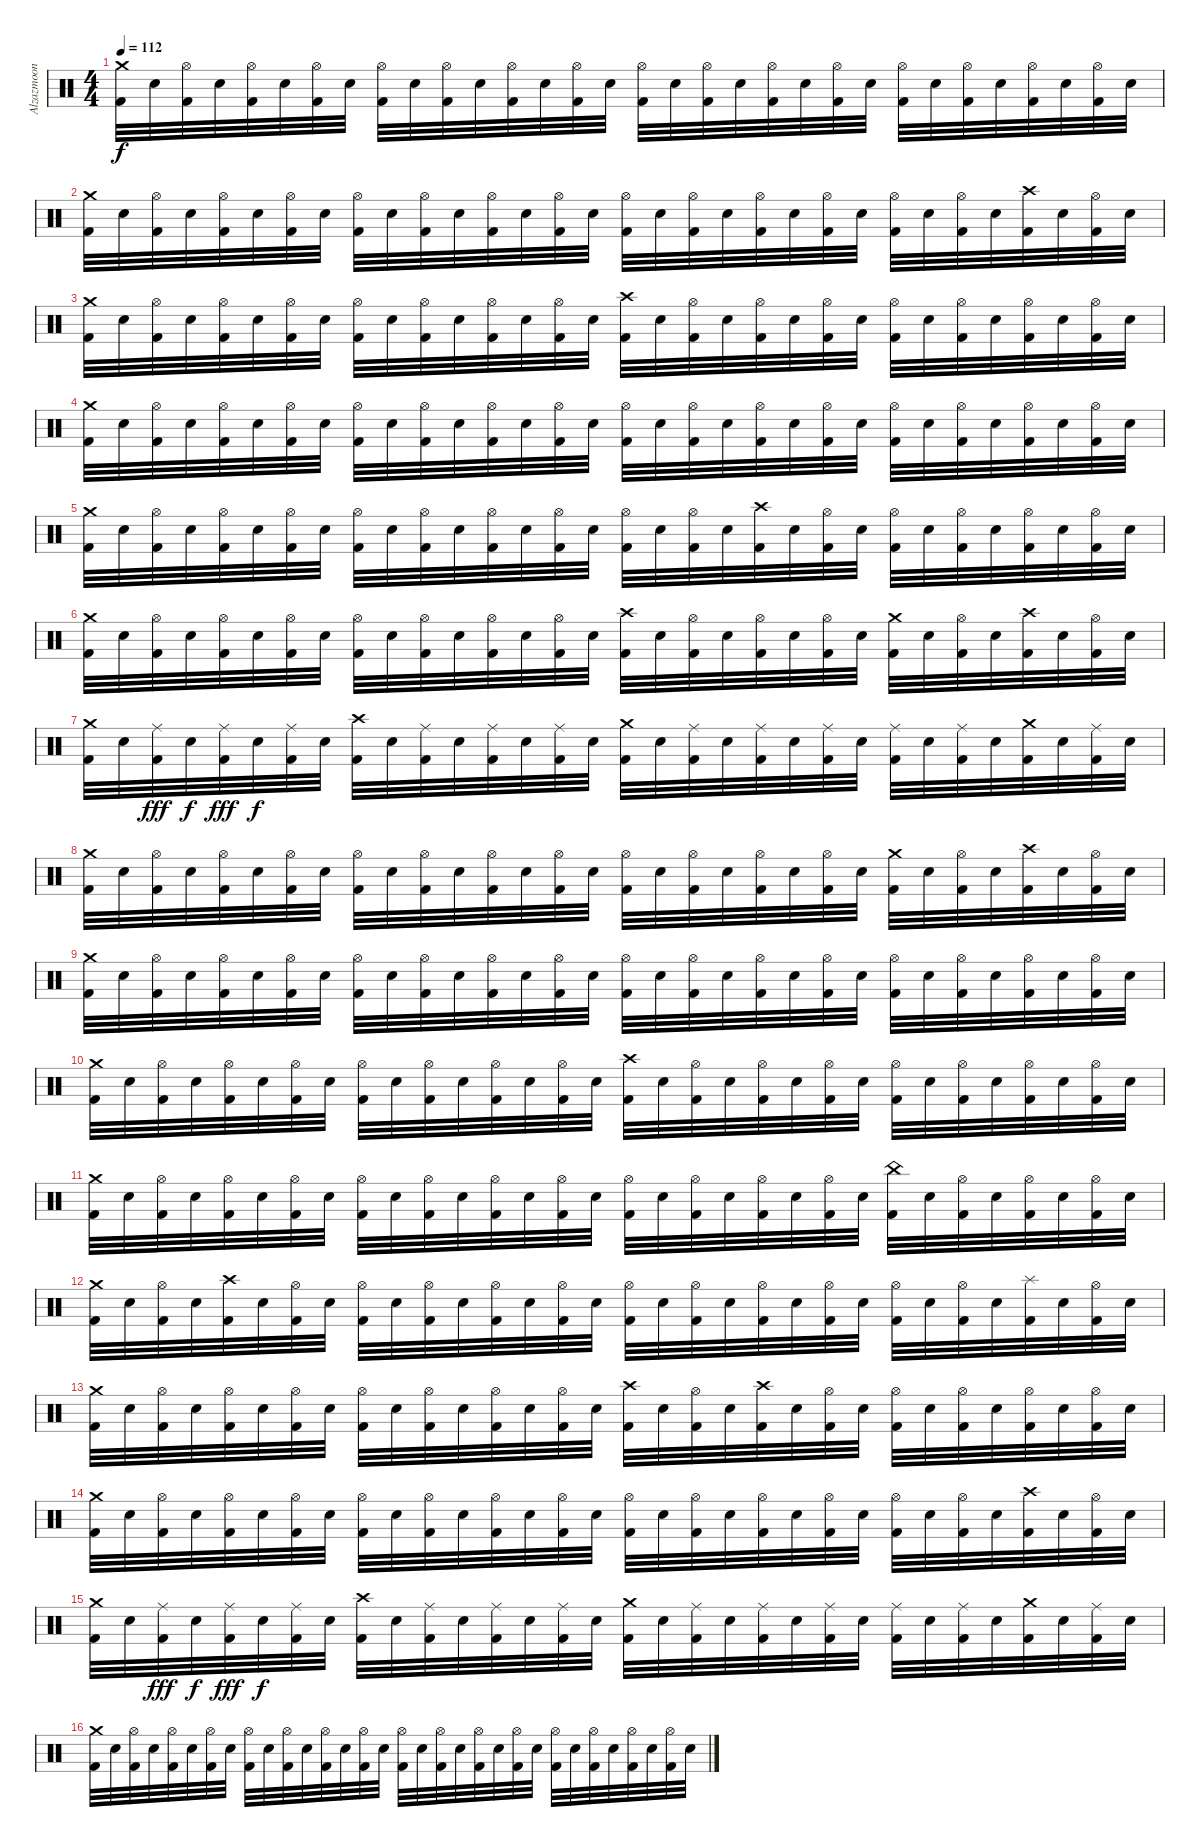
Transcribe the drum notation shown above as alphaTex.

\track ("Alzazmoon" "Alzazmoon") {instrument percussion}
\staff {score}
\articulation defaults
\ts (4 4)
\tempo 112
\clef neutral
\ks c
("Crash medium (hit)" "Kick (hit) 2").32{dy f} "Snare (hit) 2".32 ("Hi-Hat (open)" "Kick (hit) 2").32 "Snare (hit) 2".32 ("Hi-Hat (open)" "Kick (hit) 2").32 "Snare (hit) 2".32 ("Hi-Hat (open)" "Kick (hit) 2").32 "Snare (hit) 2".32 ("Hi-Hat (open)" "Kick (hit) 2").32 "Snare (hit) 2".32 ("Hi-Hat (open)" "Kick (hit) 2").32 "Snare (hit) 2".32 ("Hi-Hat (open)" "Kick (hit) 2").32 "Snare (hit) 2".32 ("Hi-Hat (open)" "Kick (hit) 2").32 "Snare (hit) 2".32 ("Hi-Hat (open)" "Kick (hit) 2").32 "Snare (hit) 2".32 ("Hi-Hat (open)" "Kick (hit) 2").32 "Snare (hit) 2".32 ("Hi-Hat (open)" "Kick (hit) 2").32 "Snare (hit) 2".32 ("Hi-Hat (open)" "Kick (hit) 2").32 "Snare (hit) 2".32 ("Hi-Hat (open)" "Kick (hit) 2").32 "Snare (hit) 2".32 ("Hi-Hat (open)" "Kick (hit) 2").32 "Snare (hit) 2".32 ("Hi-Hat (open)" "Kick (hit) 2").32 "Snare (hit) 2".32 ("Hi-Hat (open)" "Kick (hit) 2").32 "Snare (hit) 2".32 |
("Crash medium (hit)" "Kick (hit) 2").32 "Snare (hit) 2".32 ("Hi-Hat (open)" "Kick (hit) 2").32 "Snare (hit) 2".32 ("Hi-Hat (open)" "Kick (hit) 2").32 "Snare (hit) 2".32 ("Hi-Hat (open)" "Kick (hit) 2").32 "Snare (hit) 2".32 ("Hi-Hat (open)" "Kick (hit) 2").32 "Snare (hit) 2".32 ("Hi-Hat (open)" "Kick (hit) 2").32 "Snare (hit) 2".32 ("Hi-Hat (open)" "Kick (hit) 2").32 "Snare (hit) 2".32 ("Hi-Hat (open)" "Kick (hit) 2").32 "Snare (hit) 2".32 ("Hi-Hat (open)" "Kick (hit) 2").32 "Snare (hit) 2".32 ("Hi-Hat (open)" "Kick (hit) 2").32 "Snare (hit) 2".32 ("Hi-Hat (open)" "Kick (hit) 2").32 "Snare (hit) 2".32 ("Hi-Hat (open)" "Kick (hit) 2").32 "Snare (hit) 2".32 ("Hi-Hat (open)" "Kick (hit) 2").32 "Snare (hit) 2".32 ("Hi-Hat (open)" "Kick (hit) 2").32 "Snare (hit) 2".32 ("Crash high (hit)" "Kick (hit) 2").32 "Snare (hit) 2".32 ("Hi-Hat (open)" "Kick (hit) 2").32 "Snare (hit) 2".32 |
("Crash medium (hit)" "Kick (hit) 2").32 "Snare (hit) 2".32 ("Hi-Hat (open)" "Kick (hit) 2").32 "Snare (hit) 2".32 ("Hi-Hat (open)" "Kick (hit) 2").32 "Snare (hit) 2".32 ("Hi-Hat (open)" "Kick (hit) 2").32 "Snare (hit) 2".32 ("Hi-Hat (open)" "Kick (hit) 2").32 "Snare (hit) 2".32 ("Hi-Hat (open)" "Kick (hit) 2").32 "Snare (hit) 2".32 ("Hi-Hat (open)" "Kick (hit) 2").32 "Snare (hit) 2".32 ("Hi-Hat (open)" "Kick (hit) 2").32 "Snare (hit) 2".32 ("Crash high (hit)" "Kick (hit) 2").32 "Snare (hit) 2".32 ("Hi-Hat (open)" "Kick (hit) 2").32 "Snare (hit) 2".32 ("Hi-Hat (open)" "Kick (hit) 2").32 "Snare (hit) 2".32 ("Hi-Hat (open)" "Kick (hit) 2").32 "Snare (hit) 2".32 ("Hi-Hat (open)" "Kick (hit) 2").32 "Snare (hit) 2".32 ("Hi-Hat (open)" "Kick (hit) 2").32 "Snare (hit) 2".32 ("Hi-Hat (open)" "Kick (hit) 2").32 "Snare (hit) 2".32 ("Hi-Hat (open)" "Kick (hit) 2").32 "Snare (hit) 2".32 |
("Crash medium (hit)" "Kick (hit) 2").32 "Snare (hit) 2".32 ("Hi-Hat (open)" "Kick (hit) 2").32 "Snare (hit) 2".32 ("Hi-Hat (open)" "Kick (hit) 2").32 "Snare (hit) 2".32 ("Hi-Hat (open)" "Kick (hit) 2").32 "Snare (hit) 2".32 ("Hi-Hat (open)" "Kick (hit) 2").32 "Snare (hit) 2".32 ("Hi-Hat (open)" "Kick (hit) 2").32 "Snare (hit) 2".32 ("Hi-Hat (open)" "Kick (hit) 2").32 "Snare (hit) 2".32 ("Hi-Hat (open)" "Kick (hit) 2").32 "Snare (hit) 2".32 ("Hi-Hat (open)" "Kick (hit) 2").32 "Snare (hit) 2".32 ("Hi-Hat (open)" "Kick (hit) 2").32 "Snare (hit) 2".32 ("Hi-Hat (open)" "Kick (hit) 2").32 "Snare (hit) 2".32 ("Hi-Hat (open)" "Kick (hit) 2").32 "Snare (hit) 2".32 ("Hi-Hat (open)" "Kick (hit) 2").32 "Snare (hit) 2".32 ("Hi-Hat (open)" "Kick (hit) 2").32 "Snare (hit) 2".32 ("Hi-Hat (open)" "Kick (hit) 2").32 "Snare (hit) 2".32 ("Hi-Hat (open)" "Kick (hit) 2").32 "Snare (hit) 2".32 |
("Crash medium (hit)" "Kick (hit) 2").32 "Snare (hit) 2".32 ("Hi-Hat (open)" "Kick (hit) 2").32 "Snare (hit) 2".32 ("Hi-Hat (open)" "Kick (hit) 2").32 "Snare (hit) 2".32 ("Hi-Hat (open)" "Kick (hit) 2").32 "Snare (hit) 2".32 ("Hi-Hat (open)" "Kick (hit) 2").32 "Snare (hit) 2".32 ("Hi-Hat (open)" "Kick (hit) 2").32 "Snare (hit) 2".32 ("Hi-Hat (open)" "Kick (hit) 2").32 "Snare (hit) 2".32 ("Hi-Hat (open)" "Kick (hit) 2").32 "Snare (hit) 2".32 ("Hi-Hat (open)" "Kick (hit) 2").32 "Snare (hit) 2".32 ("Hi-Hat (open)" "Kick (hit) 2").32 "Snare (hit) 2".32 ("Crash high (hit)" "Kick (hit) 2").32 "Snare (hit) 2".32 ("Hi-Hat (open)" "Kick (hit) 2").32 "Snare (hit) 2".32 ("Hi-Hat (open)" "Kick (hit) 2").32 "Snare (hit) 2".32 ("Hi-Hat (open)" "Kick (hit) 2").32 "Snare (hit) 2".32 ("Hi-Hat (open)" "Kick (hit) 2").32 "Snare (hit) 2".32 ("Hi-Hat (open)" "Kick (hit) 2").32 "Snare (hit) 2".32 |
("Crash medium (hit)" "Kick (hit) 2").32 "Snare (hit) 2".32 ("Hi-Hat (open)" "Kick (hit) 2").32 "Snare (hit) 2".32 ("Hi-Hat (open)" "Kick (hit) 2").32 "Snare (hit) 2".32 ("Hi-Hat (open)" "Kick (hit) 2").32 "Snare (hit) 2".32 ("Hi-Hat (open)" "Kick (hit) 2").32 "Snare (hit) 2".32 ("Hi-Hat (open)" "Kick (hit) 2").32 "Snare (hit) 2".32 ("Hi-Hat (open)" "Kick (hit) 2").32 "Snare (hit) 2".32 ("Hi-Hat (open)" "Kick (hit) 2").32 "Snare (hit) 2".32 ("Crash high (hit)" "Kick (hit) 2").32 "Snare (hit) 2".32 ("Hi-Hat (open)" "Kick (hit) 2").32 "Snare (hit) 2".32 ("Hi-Hat (open)" "Kick (hit) 2").32 "Snare (hit) 2".32 ("Hi-Hat (open)" "Kick (hit) 2").32 "Snare (hit) 2".32 ("Crash medium (hit)" "Kick (hit) 2").32 "Snare (hit) 2".32 ("Hi-Hat (open)" "Kick (hit) 2").32 "Snare (hit) 2".32 ("Crash high (hit)" "Kick (hit) 2").32 "Snare (hit) 2".32 ("Hi-Hat (open)" "Kick (hit) 2").32 "Snare (hit) 2".32 |
("Crash medium (hit)" "Kick (hit) 2").32 "Snare (hit) 2".32 ("Ride (middle)" "Kick (hit) 2").32{dy fff} "Snare (hit) 2".32{dy f} ("Ride (middle)" "Kick (hit) 2").32{dy fff} "Snare (hit) 2".32{dy f} ("Ride (middle)" "Kick (hit) 2").32 "Snare (hit) 2".32 ("Crash high (hit)" "Kick (hit) 2").32 "Snare (hit) 2".32 ("Ride (middle)" "Kick (hit) 2").32 "Snare (hit) 2".32 ("Ride (middle)" "Kick (hit) 2").32 "Snare (hit) 2".32 ("Ride (middle)" "Kick (hit) 2").32 "Snare (hit) 2".32 ("Crash medium (hit)" "Kick (hit) 2").32 "Snare (hit) 2".32 ("Ride (middle)" "Kick (hit) 2").32 "Snare (hit) 2".32 ("Ride (middle)" "Kick (hit) 2").32 "Snare (hit) 2".32 ("Ride (middle)" "Kick (hit) 2").32 "Snare (hit) 2".32 ("Ride (middle)" "Kick (hit) 2").32 "Snare (hit) 2".32 ("Ride (middle)" "Kick (hit) 2").32 "Snare (hit) 2".32 ("Crash medium (hit)" "Kick (hit) 2").32 "Snare (hit) 2".32 ("Ride (middle)" "Kick (hit) 2").32 "Snare (hit) 2".32 |
("Crash medium (hit)" "Kick (hit) 2").32 "Snare (hit) 2".32 ("Hi-Hat (open)" "Kick (hit) 2").32 "Snare (hit) 2".32 ("Hi-Hat (open)" "Kick (hit) 2").32 "Snare (hit) 2".32 ("Hi-Hat (open)" "Kick (hit) 2").32 "Snare (hit) 2".32 ("Hi-Hat (open)" "Kick (hit) 2").32 "Snare (hit) 2".32 ("Hi-Hat (open)" "Kick (hit) 2").32 "Snare (hit) 2".32 ("Hi-Hat (open)" "Kick (hit) 2").32 "Snare (hit) 2".32 ("Hi-Hat (open)" "Kick (hit) 2").32 "Snare (hit) 2".32 ("Hi-Hat (open)" "Kick (hit) 2").32 "Snare (hit) 2".32 ("Hi-Hat (open)" "Kick (hit) 2").32 "Snare (hit) 2".32 ("Hi-Hat (open)" "Kick (hit) 2").32 "Snare (hit) 2".32 ("Hi-Hat (open)" "Kick (hit) 2").32 "Snare (hit) 2".32 ("Crash medium (hit)" "Kick (hit) 2").32 "Snare (hit) 2".32 ("Hi-Hat (open)" "Kick (hit) 2").32 "Snare (hit) 2".32 ("Crash high (hit)" "Kick (hit) 2").32 "Snare (hit) 2".32 ("Hi-Hat (open)" "Kick (hit) 2").32 "Snare (hit) 2".32 |
("Crash medium (hit)" "Kick (hit) 2").32 "Snare (hit) 2".32 ("Hi-Hat (open)" "Kick (hit) 2").32 "Snare (hit) 2".32 ("Hi-Hat (open)" "Kick (hit) 2").32 "Snare (hit) 2".32 ("Hi-Hat (open)" "Kick (hit) 2").32 "Snare (hit) 2".32 ("Hi-Hat (open)" "Kick (hit) 2").32 "Snare (hit) 2".32 ("Hi-Hat (open)" "Kick (hit) 2").32 "Snare (hit) 2".32 ("Hi-Hat (open)" "Kick (hit) 2").32 "Snare (hit) 2".32 ("Hi-Hat (open)" "Kick (hit) 2").32 "Snare (hit) 2".32 ("Hi-Hat (open)" "Kick (hit) 2").32 "Snare (hit) 2".32 ("Hi-Hat (open)" "Kick (hit) 2").32 "Snare (hit) 2".32 ("Hi-Hat (open)" "Kick (hit) 2").32 "Snare (hit) 2".32 ("Hi-Hat (open)" "Kick (hit) 2").32 "Snare (hit) 2".32 ("Hi-Hat (open)" "Kick (hit) 2").32 "Snare (hit) 2".32 ("Hi-Hat (open)" "Kick (hit) 2").32 "Snare (hit) 2".32 ("Hi-Hat (open)" "Kick (hit) 2").32 "Snare (hit) 2".32 ("Hi-Hat (open)" "Kick (hit) 2").32 "Snare (hit) 2".32 |
("Crash medium (hit)" "Kick (hit) 2").32 "Snare (hit) 2".32 ("Hi-Hat (open)" "Kick (hit) 2").32 "Snare (hit) 2".32 ("Hi-Hat (open)" "Kick (hit) 2").32 "Snare (hit) 2".32 ("Hi-Hat (open)" "Kick (hit) 2").32 "Snare (hit) 2".32 ("Hi-Hat (open)" "Kick (hit) 2").32 "Snare (hit) 2".32 ("Hi-Hat (open)" "Kick (hit) 2").32 "Snare (hit) 2".32 ("Hi-Hat (open)" "Kick (hit) 2").32 "Snare (hit) 2".32 ("Hi-Hat (open)" "Kick (hit) 2").32 "Snare (hit) 2".32 ("Crash high (hit)" "Kick (hit) 2").32 "Snare (hit) 2".32 ("Hi-Hat (open)" "Kick (hit) 2").32 "Snare (hit) 2".32 ("Hi-Hat (open)" "Kick (hit) 2").32 "Snare (hit) 2".32 ("Hi-Hat (open)" "Kick (hit) 2").32 "Snare (hit) 2".32 ("Hi-Hat (open)" "Kick (hit) 2").32 "Snare (hit) 2".32 ("Hi-Hat (open)" "Kick (hit) 2").32 "Snare (hit) 2".32 ("Hi-Hat (open)" "Kick (hit) 2").32 "Snare (hit) 2".32 ("Hi-Hat (open)" "Kick (hit) 2").32 "Snare (hit) 2".32 |
("Crash medium (hit)" "Kick (hit) 2").32 "Snare (hit) 2".32 ("Hi-Hat (open)" "Kick (hit) 2").32 "Snare (hit) 2".32 ("Hi-Hat (open)" "Kick (hit) 2").32 "Snare (hit) 2".32 ("Hi-Hat (open)" "Kick (hit) 2").32 "Snare (hit) 2".32 ("Hi-Hat (open)" "Kick (hit) 2").32 "Snare (hit) 2".32 ("Hi-Hat (open)" "Kick (hit) 2").32 "Snare (hit) 2".32 ("Hi-Hat (open)" "Kick (hit) 2").32 "Snare (hit) 2".32 ("Hi-Hat (open)" "Kick (hit) 2").32 "Snare (hit) 2".32 ("Hi-Hat (open)" "Kick (hit) 2").32 "Snare (hit) 2".32 ("Hi-Hat (open)" "Kick (hit) 2").32 "Snare (hit) 2".32 ("Hi-Hat (open)" "Kick (hit) 2").32 "Snare (hit) 2".32 ("Hi-Hat (open)" "Kick (hit) 2").32 "Snare (hit) 2".32 ("China (hit)" "Kick (hit) 2").32 "Snare (hit) 2".32 ("Hi-Hat (open)" "Kick (hit) 2").32 "Snare (hit) 2".32 ("Hi-Hat (open)" "Kick (hit) 2").32 "Snare (hit) 2".32 ("Hi-Hat (open)" "Kick (hit) 2").32 "Snare (hit) 2".32 |
("Crash medium (hit)" "Kick (hit) 2").32 "Snare (hit) 2".32 ("Hi-Hat (open)" "Kick (hit) 2").32 "Snare (hit) 2".32 ("Crash high (hit)" "Kick (hit) 2").32 "Snare (hit) 2".32 ("Hi-Hat (open)" "Kick (hit) 2").32 "Snare (hit) 2".32 ("Hi-Hat (open)" "Kick (hit) 2").32 "Snare (hit) 2".32 ("Hi-Hat (open)" "Kick (hit) 2").32 "Snare (hit) 2".32 ("Hi-Hat (open)" "Kick (hit) 2").32 "Snare (hit) 2".32 ("Hi-Hat (open)" "Kick (hit) 2").32 "Snare (hit) 2".32 ("Hi-Hat (open)" "Kick (hit) 2").32 "Snare (hit) 2".32 ("Hi-Hat (open)" "Kick (hit) 2").32 "Snare (hit) 2".32 ("Hi-Hat (open)" "Kick (hit) 2").32 "Snare (hit) 2".32 ("Hi-Hat (open)" "Kick (hit) 2").32 "Snare (hit) 2".32 ("Hi-Hat (open)" "Kick (hit) 2").32 "Snare (hit) 2".32 ("Hi-Hat (open)" "Kick (hit) 2").32 "Snare (hit) 2".32 ("Splash (hit)" "Kick (hit) 2").32 "Snare (hit) 2".32 ("Hi-Hat (open)" "Kick (hit) 2").32 "Snare (hit) 2".32 |
("Crash medium (hit)" "Kick (hit) 2").32 "Snare (hit) 2".32 ("Hi-Hat (open)" "Kick (hit) 2").32 "Snare (hit) 2".32 ("Hi-Hat (open)" "Kick (hit) 2").32 "Snare (hit) 2".32 ("Hi-Hat (open)" "Kick (hit) 2").32 "Snare (hit) 2".32 ("Hi-Hat (open)" "Kick (hit) 2").32 "Snare (hit) 2".32 ("Hi-Hat (open)" "Kick (hit) 2").32 "Snare (hit) 2".32 ("Hi-Hat (open)" "Kick (hit) 2").32 "Snare (hit) 2".32 ("Hi-Hat (open)" "Kick (hit) 2").32 "Snare (hit) 2".32 ("Crash high (hit)" "Kick (hit) 2").32 "Snare (hit) 2".32 ("Hi-Hat (open)" "Kick (hit) 2").32 "Snare (hit) 2".32 ("Crash high (hit)" "Kick (hit) 2").32 "Snare (hit) 2".32 ("Hi-Hat (open)" "Kick (hit) 2").32 "Snare (hit) 2".32 ("Hi-Hat (open)" "Kick (hit) 2").32 "Snare (hit) 2".32 ("Hi-Hat (open)" "Kick (hit) 2").32 "Snare (hit) 2".32 ("Hi-Hat (open)" "Kick (hit) 2").32 "Snare (hit) 2".32 ("Hi-Hat (open)" "Kick (hit) 2").32 "Snare (hit) 2".32 |
("Crash medium (hit)" "Kick (hit) 2").32 "Snare (hit) 2".32 ("Hi-Hat (open)" "Kick (hit) 2").32 "Snare (hit) 2".32 ("Hi-Hat (open)" "Kick (hit) 2").32 "Snare (hit) 2".32 ("Hi-Hat (open)" "Kick (hit) 2").32 "Snare (hit) 2".32 ("Hi-Hat (open)" "Kick (hit) 2").32 "Snare (hit) 2".32 ("Hi-Hat (open)" "Kick (hit) 2").32 "Snare (hit) 2".32 ("Hi-Hat (open)" "Kick (hit) 2").32 "Snare (hit) 2".32 ("Hi-Hat (open)" "Kick (hit) 2").32 "Snare (hit) 2".32 ("Hi-Hat (open)" "Kick (hit) 2").32 "Snare (hit) 2".32 ("Hi-Hat (open)" "Kick (hit) 2").32 "Snare (hit) 2".32 ("Hi-Hat (open)" "Kick (hit) 2").32 "Snare (hit) 2".32 ("Hi-Hat (open)" "Kick (hit) 2").32 "Snare (hit) 2".32 ("Hi-Hat (open)" "Kick (hit) 2").32 "Snare (hit) 2".32 ("Hi-Hat (open)" "Kick (hit) 2").32 "Snare (hit) 2".32 ("Crash high (hit)" "Kick (hit) 2").32 "Snare (hit) 2".32 ("Hi-Hat (open)" "Kick (hit) 2").32 "Snare (hit) 2".32 |
("Crash medium (hit)" "Kick (hit) 2").32 "Snare (hit) 2".32 ("Ride (middle)" "Kick (hit) 2").32{dy fff} "Snare (hit) 2".32{dy f} ("Ride (middle)" "Kick (hit) 2").32{dy fff} "Snare (hit) 2".32{dy f} ("Ride (middle)" "Kick (hit) 2").32 "Snare (hit) 2".32 ("Crash high (hit)" "Kick (hit) 2").32 "Snare (hit) 2".32 ("Ride (middle)" "Kick (hit) 2").32 "Snare (hit) 2".32 ("Ride (middle)" "Kick (hit) 2").32 "Snare (hit) 2".32 ("Ride (middle)" "Kick (hit) 2").32 "Snare (hit) 2".32 ("Crash medium (hit)" "Kick (hit) 2").32 "Snare (hit) 2".32 ("Ride (middle)" "Kick (hit) 2").32 "Snare (hit) 2".32 ("Ride (middle)" "Kick (hit) 2").32 "Snare (hit) 2".32 ("Ride (middle)" "Kick (hit) 2").32 "Snare (hit) 2".32 ("Ride (middle)" "Kick (hit) 2").32 "Snare (hit) 2".32 ("Ride (middle)" "Kick (hit) 2").32 "Snare (hit) 2".32 ("Crash medium (hit)" "Kick (hit) 2").32 "Snare (hit) 2".32 ("Ride (middle)" "Kick (hit) 2").32 "Snare (hit) 2".32 |
("Crash medium (hit)" "Kick (hit) 2").32 "Snare (hit) 2".32 ("Hi-Hat (open)" "Kick (hit) 2").32 "Snare (hit) 2".32 ("Hi-Hat (open)" "Kick (hit) 2").32 "Snare (hit) 2".32 ("Hi-Hat (open)" "Kick (hit) 2").32 "Snare (hit) 2".32 ("Hi-Hat (open)" "Kick (hit) 2").32 "Snare (hit) 2".32 ("Hi-Hat (open)" "Kick (hit) 2").32 "Snare (hit) 2".32 ("Hi-Hat (open)" "Kick (hit) 2").32 "Snare (hit) 2".32 ("Hi-Hat (open)" "Kick (hit) 2").32 "Snare (hit) 2".32 ("Hi-Hat (open)" "Kick (hit) 2").32 "Snare (hit) 2".32 ("Hi-Hat (open)" "Kick (hit) 2").32 "Snare (hit) 2".32 ("Hi-Hat (open)" "Kick (hit) 2").32 "Snare (hit) 2".32 ("Hi-Hat (open)" "Kick (hit) 2").32 "Snare (hit) 2".32 ("Hi-Hat (open)" "Kick (hit) 2").32 "Snare (hit) 2".32 ("Hi-Hat (open)" "Kick (hit) 2").32 "Snare (hit) 2".32 ("Hi-Hat (open)" "Kick (hit) 2").32 "Snare (hit) 2".32 ("Hi-Hat (open)" "Kick (hit) 2").32 "Snare (hit) 2".32
